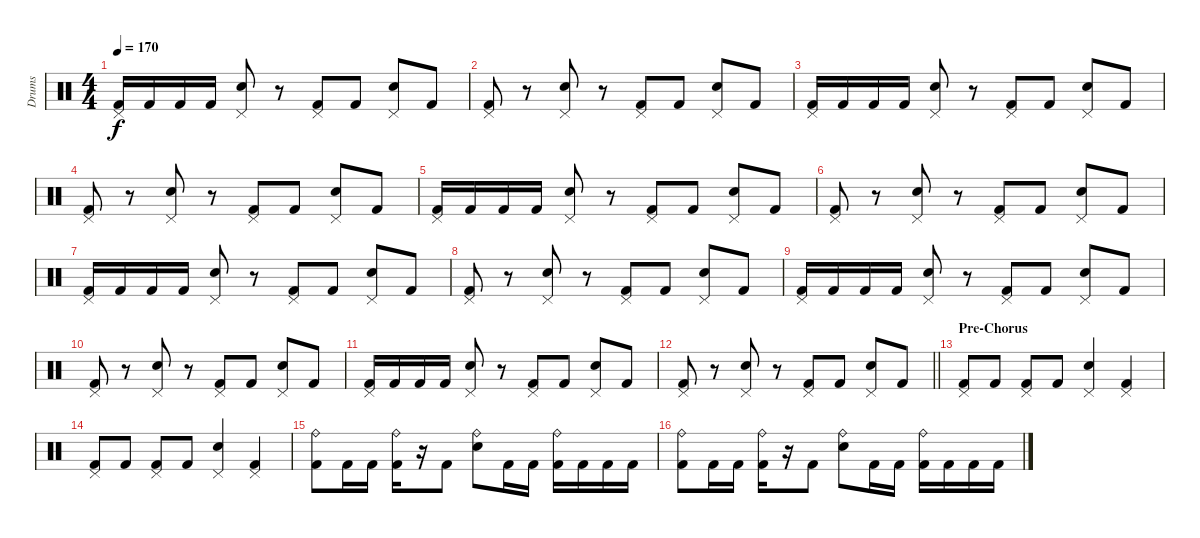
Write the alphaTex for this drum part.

\track ("Drums" "Drums") {instrument percussion}
\staff {score}
\articulation defaults
\ts (4 4)
\tempo 170
\clef neutral
\ks c
("Pedal Hi-Hat (hit)" "Kick (hit) 2").16{dy f} "Kick (hit) 2".16 "Kick (hit) 2".16 "Kick (hit) 2".16 ("Pedal Hi-Hat (hit)" "Electric Snare (hit)").8 r.8 ("Pedal Hi-Hat (hit)" "Kick (hit) 2").8 "Kick (hit) 2".8 ("Pedal Hi-Hat (hit)" "Electric Snare (hit)").8 "Kick (hit) 2".8 |
("Pedal Hi-Hat (hit)" "Kick (hit) 2").8 r.8 ("Pedal Hi-Hat (hit)" "Electric Snare (hit)").8 r.8 ("Pedal Hi-Hat (hit)" "Kick (hit) 2").8 "Kick (hit) 2".8 ("Pedal Hi-Hat (hit)" "Electric Snare (hit)").8 "Kick (hit) 2".8 |
("Pedal Hi-Hat (hit)" "Kick (hit) 2").16 "Kick (hit) 2".16 "Kick (hit) 2".16 "Kick (hit) 2".16 ("Pedal Hi-Hat (hit)" "Electric Snare (hit)").8 r.8 ("Pedal Hi-Hat (hit)" "Kick (hit) 2").8 "Kick (hit) 2".8 ("Pedal Hi-Hat (hit)" "Electric Snare (hit)").8 "Kick (hit) 2".8 |
("Pedal Hi-Hat (hit)" "Kick (hit) 2").8 r.8 ("Pedal Hi-Hat (hit)" "Electric Snare (hit)").8 r.8 ("Pedal Hi-Hat (hit)" "Kick (hit) 2").8 "Kick (hit) 2".8 ("Pedal Hi-Hat (hit)" "Electric Snare (hit)").8 "Kick (hit) 2".8 |
("Pedal Hi-Hat (hit)" "Kick (hit) 2").16 "Kick (hit) 2".16 "Kick (hit) 2".16 "Kick (hit) 2".16 ("Pedal Hi-Hat (hit)" "Electric Snare (hit)").8 r.8 ("Pedal Hi-Hat (hit)" "Kick (hit) 2").8 "Kick (hit) 2".8 ("Pedal Hi-Hat (hit)" "Electric Snare (hit)").8 "Kick (hit) 2".8 |
("Pedal Hi-Hat (hit)" "Kick (hit) 2").8 r.8 ("Pedal Hi-Hat (hit)" "Electric Snare (hit)").8 r.8 ("Pedal Hi-Hat (hit)" "Kick (hit) 2").8 "Kick (hit) 2".8 ("Pedal Hi-Hat (hit)" "Electric Snare (hit)").8 "Kick (hit) 2".8 |
("Pedal Hi-Hat (hit)" "Kick (hit) 2").16 "Kick (hit) 2".16 "Kick (hit) 2".16 "Kick (hit) 2".16 ("Pedal Hi-Hat (hit)" "Electric Snare (hit)").8 r.8 ("Pedal Hi-Hat (hit)" "Kick (hit) 2").8 "Kick (hit) 2".8 ("Pedal Hi-Hat (hit)" "Electric Snare (hit)").8 "Kick (hit) 2".8 |
("Pedal Hi-Hat (hit)" "Kick (hit) 2").8 r.8 ("Pedal Hi-Hat (hit)" "Electric Snare (hit)").8 r.8 ("Pedal Hi-Hat (hit)" "Kick (hit) 2").8 "Kick (hit) 2".8 ("Pedal Hi-Hat (hit)" "Electric Snare (hit)").8 "Kick (hit) 2".8 |
("Pedal Hi-Hat (hit)" "Kick (hit) 2").16 "Kick (hit) 2".16 "Kick (hit) 2".16 "Kick (hit) 2".16 ("Pedal Hi-Hat (hit)" "Electric Snare (hit)").8 r.8 ("Pedal Hi-Hat (hit)" "Kick (hit) 2").8 "Kick (hit) 2".8 ("Pedal Hi-Hat (hit)" "Electric Snare (hit)").8 "Kick (hit) 2".8 |
("Pedal Hi-Hat (hit)" "Kick (hit) 2").8 r.8 ("Pedal Hi-Hat (hit)" "Electric Snare (hit)").8 r.8 ("Pedal Hi-Hat (hit)" "Kick (hit) 2").8 "Kick (hit) 2".8 ("Pedal Hi-Hat (hit)" "Electric Snare (hit)").8 "Kick (hit) 2".8 |
("Pedal Hi-Hat (hit)" "Kick (hit) 2").16 "Kick (hit) 2".16 "Kick (hit) 2".16 "Kick (hit) 2".16 ("Pedal Hi-Hat (hit)" "Electric Snare (hit)").8 r.8 ("Pedal Hi-Hat (hit)" "Kick (hit) 2").8 "Kick (hit) 2".8 ("Pedal Hi-Hat (hit)" "Electric Snare (hit)").8 "Kick (hit) 2".8 |
\barLineRight lightlight
("Pedal Hi-Hat (hit)" "Kick (hit) 2").8 r.8 ("Pedal Hi-Hat (hit)" "Electric Snare (hit)").8 r.8 ("Pedal Hi-Hat (hit)" "Kick (hit) 2").8 "Kick (hit) 2".8 ("Pedal Hi-Hat (hit)" "Electric Snare (hit)").8 "Kick (hit) 2".8 |
\section ("" "Pre-Chorus")
("Pedal Hi-Hat (hit)" "Kick (hit) 2").8 "Kick (hit) 2".8 ("Pedal Hi-Hat (hit)" "Kick (hit) 2").8 "Kick (hit) 2".8 ("Pedal Hi-Hat (hit)" "Electric Snare (hit)").4 ("Pedal Hi-Hat (hit)" "Kick (hit) 2").4 |
("Pedal Hi-Hat (hit)" "Kick (hit) 2").8 "Kick (hit) 2".8 ("Pedal Hi-Hat (hit)" "Kick (hit) 2").8 "Kick (hit) 2".8 ("Pedal Hi-Hat (hit)" "Electric Snare (hit)").4 ("Pedal Hi-Hat (hit)" "Kick (hit) 2").4 |
("Ride (bell)" "Kick (hit) 2").8 "Kick (hit) 2".16 "Kick (hit) 2".16 ("Ride (bell)" "Kick (hit) 2").16 r.16 "Kick (hit) 2".8 ("Ride (bell)" "Electric Snare (hit)").8 "Kick (hit) 2".16 "Kick (hit) 2".16 ("Ride (bell)" "Kick (hit) 2").16 "Kick (hit) 2".16 "Kick (hit) 2".16 "Kick (hit) 2".16 |
("Ride (bell)" "Kick (hit) 2").8 "Kick (hit) 2".16 "Kick (hit) 2".16 ("Ride (bell)" "Kick (hit) 2").16 r.16 "Kick (hit) 2".8 ("Ride (bell)" "Electric Snare (hit)").8 "Kick (hit) 2".16 "Kick (hit) 2".16 ("Ride (bell)" "Kick (hit) 2").16 "Kick (hit) 2".16 "Kick (hit) 2".16 "Kick (hit) 2".16
